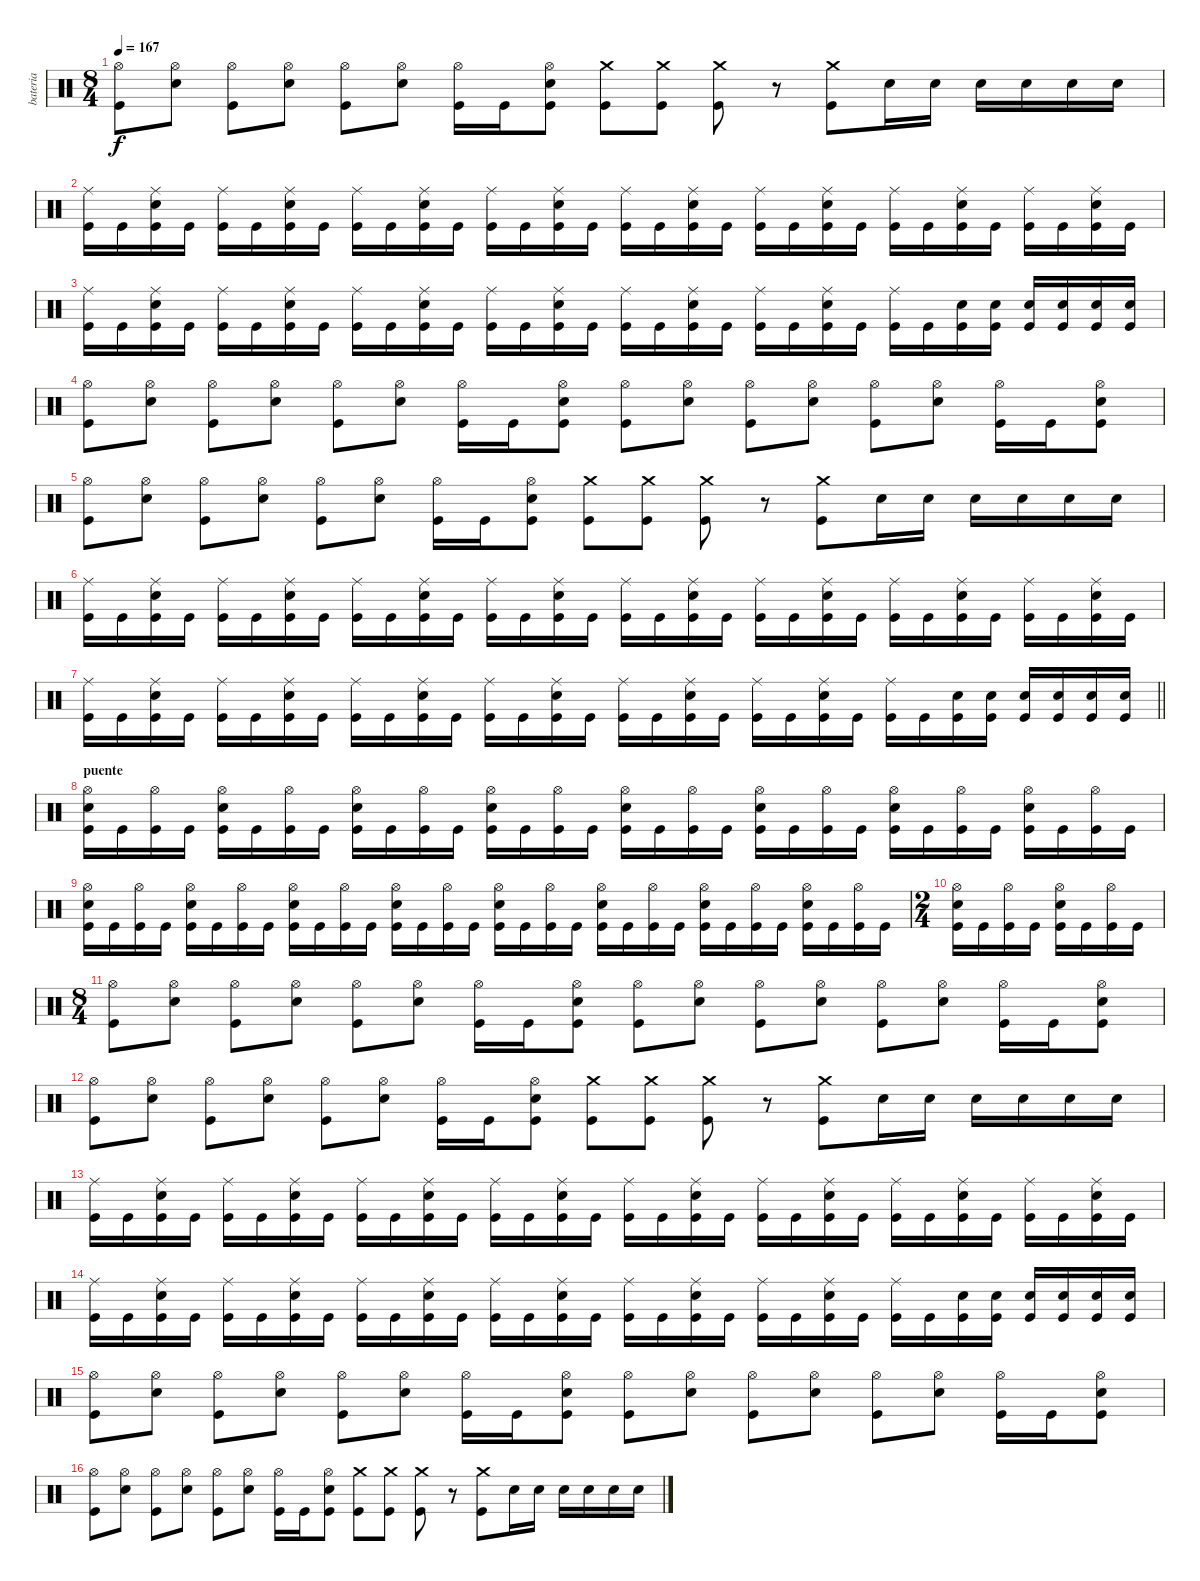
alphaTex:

\track ("bateria" "bateria") {instrument percussion}
\staff {score}
\articulation defaults
\ts (8 4)
\tempo 167
\clef neutral
\ks c
("Hi-Hat (open)" "Kick (hit)").8{dy f} ("Hi-Hat (open)" "Snare (hit) 2").8 ("Hi-Hat (open)" "Kick (hit)").8 ("Hi-Hat (open)" "Snare (hit) 2").8 ("Hi-Hat (open)" "Kick (hit)").8 ("Hi-Hat (open)" "Snare (hit) 2").8 ("Hi-Hat (open)" "Kick (hit)").16 "Kick (hit)".16 ("Hi-Hat (open)" "Snare (hit) 2" "Kick (hit)").8 ("Crash medium (hit)" "Kick (hit)").8 ("Crash medium (hit)" "Kick (hit)").8 ("Crash medium (hit)" "Kick (hit)").8 r.8 ("Crash medium (hit)" "Kick (hit)").8 "Snare (hit) 2".16 "Snare (hit) 2".16 "Snare (hit) 2".16 "Snare (hit) 2".16 "Snare (hit) 2".16 "Snare (hit) 2".16 |
("Ride (middle)" "Kick (hit)").16 "Kick (hit)".16 ("Ride (middle)" "Snare (hit) 2" "Kick (hit)").16 "Kick (hit)".16 ("Ride (middle)" "Kick (hit)").16 "Kick (hit)".16 ("Ride (middle)" "Snare (hit) 2" "Kick (hit)").16 "Kick (hit)".16 ("Ride (middle)" "Kick (hit)").16 "Kick (hit)".16 ("Ride (middle)" "Snare (hit) 2" "Kick (hit)").16 "Kick (hit)".16 ("Ride (middle)" "Kick (hit)").16 "Kick (hit)".16 ("Ride (middle)" "Snare (hit) 2" "Kick (hit)").16 "Kick (hit)".16 ("Ride (middle)" "Kick (hit)").16 "Kick (hit)".16 ("Ride (middle)" "Snare (hit) 2" "Kick (hit)").16 "Kick (hit)".16 ("Ride (middle)" "Kick (hit)").16 "Kick (hit)".16 ("Ride (middle)" "Snare (hit) 2" "Kick (hit)").16 "Kick (hit)".16 ("Ride (middle)" "Kick (hit)").16 "Kick (hit)".16 ("Ride (middle)" "Snare (hit) 2" "Kick (hit)").16 "Kick (hit)".16 ("Ride (middle)" "Kick (hit)").16 "Kick (hit)".16 ("Ride (middle)" "Snare (hit) 2" "Kick (hit)").16 "Kick (hit)".16 |
("Ride (middle)" "Kick (hit)").16 "Kick (hit)".16 ("Ride (middle)" "Snare (hit) 2" "Kick (hit)").16 "Kick (hit)".16 ("Ride (middle)" "Kick (hit)").16 "Kick (hit)".16 ("Ride (middle)" "Snare (hit) 2" "Kick (hit)").16 "Kick (hit)".16 ("Ride (middle)" "Kick (hit)").16 "Kick (hit)".16 ("Ride (middle)" "Snare (hit) 2" "Kick (hit)").16 "Kick (hit)".16 ("Ride (middle)" "Kick (hit)").16 "Kick (hit)".16 ("Ride (middle)" "Snare (hit) 2" "Kick (hit)").16 "Kick (hit)".16 ("Ride (middle)" "Kick (hit)").16 "Kick (hit)".16 ("Ride (middle)" "Snare (hit) 2" "Kick (hit)").16 "Kick (hit)".16 ("Ride (middle)" "Kick (hit)").16 "Kick (hit)".16 ("Ride (middle)" "Snare (hit) 2" "Kick (hit)").16 "Kick (hit)".16 ("Ride (middle)" "Kick (hit)").16 "Kick (hit)".16 ("Snare (hit) 2" "Kick (hit)").16 ("Snare (hit) 2" "Kick (hit)").16 ("Snare (hit) 2" "Kick (hit)").16 ("Snare (hit) 2" "Kick (hit)").16 ("Snare (hit) 2" "Kick (hit)").16 ("Snare (hit) 2" "Kick (hit)").16 |
("Hi-Hat (open)" "Kick (hit)").8 ("Hi-Hat (open)" "Snare (hit) 2").8 ("Hi-Hat (open)" "Kick (hit)").8 ("Hi-Hat (open)" "Snare (hit) 2").8 ("Hi-Hat (open)" "Kick (hit)").8 ("Hi-Hat (open)" "Snare (hit) 2").8 ("Hi-Hat (open)" "Kick (hit)").16 "Kick (hit)".16 ("Hi-Hat (open)" "Snare (hit) 2" "Kick (hit)").8 ("Hi-Hat (open)" "Kick (hit)").8 ("Hi-Hat (open)" "Snare (hit) 2").8 ("Hi-Hat (open)" "Kick (hit)").8 ("Hi-Hat (open)" "Snare (hit) 2").8 ("Hi-Hat (open)" "Kick (hit)").8 ("Hi-Hat (open)" "Snare (hit) 2").8 ("Hi-Hat (open)" "Kick (hit)").16 "Kick (hit)".16 ("Hi-Hat (open)" "Snare (hit) 2" "Kick (hit)").8 |
("Hi-Hat (open)" "Kick (hit)").8 ("Hi-Hat (open)" "Snare (hit) 2").8 ("Hi-Hat (open)" "Kick (hit)").8 ("Hi-Hat (open)" "Snare (hit) 2").8 ("Hi-Hat (open)" "Kick (hit)").8 ("Hi-Hat (open)" "Snare (hit) 2").8 ("Hi-Hat (open)" "Kick (hit)").16 "Kick (hit)".16 ("Hi-Hat (open)" "Snare (hit) 2" "Kick (hit)").8 ("Crash medium (hit)" "Kick (hit)").8 ("Crash medium (hit)" "Kick (hit)").8 ("Crash medium (hit)" "Kick (hit)").8 r.8 ("Crash medium (hit)" "Kick (hit)").8 "Snare (hit) 2".16 "Snare (hit) 2".16 "Snare (hit) 2".16 "Snare (hit) 2".16 "Snare (hit) 2".16 "Snare (hit) 2".16 |
("Ride (middle)" "Kick (hit)").16 "Kick (hit)".16 ("Ride (middle)" "Snare (hit) 2" "Kick (hit)").16 "Kick (hit)".16 ("Ride (middle)" "Kick (hit)").16 "Kick (hit)".16 ("Ride (middle)" "Snare (hit) 2" "Kick (hit)").16 "Kick (hit)".16 ("Ride (middle)" "Kick (hit)").16 "Kick (hit)".16 ("Ride (middle)" "Snare (hit) 2" "Kick (hit)").16 "Kick (hit)".16 ("Ride (middle)" "Kick (hit)").16 "Kick (hit)".16 ("Ride (middle)" "Snare (hit) 2" "Kick (hit)").16 "Kick (hit)".16 ("Ride (middle)" "Kick (hit)").16 "Kick (hit)".16 ("Ride (middle)" "Snare (hit) 2" "Kick (hit)").16 "Kick (hit)".16 ("Ride (middle)" "Kick (hit)").16 "Kick (hit)".16 ("Ride (middle)" "Snare (hit) 2" "Kick (hit)").16 "Kick (hit)".16 ("Ride (middle)" "Kick (hit)").16 "Kick (hit)".16 ("Ride (middle)" "Snare (hit) 2" "Kick (hit)").16 "Kick (hit)".16 ("Ride (middle)" "Kick (hit)").16 "Kick (hit)".16 ("Ride (middle)" "Snare (hit) 2" "Kick (hit)").16 "Kick (hit)".16 |
\barLineRight lightlight
("Ride (middle)" "Kick (hit)").16 "Kick (hit)".16 ("Ride (middle)" "Snare (hit) 2" "Kick (hit)").16 "Kick (hit)".16 ("Ride (middle)" "Kick (hit)").16 "Kick (hit)".16 ("Ride (middle)" "Snare (hit) 2" "Kick (hit)").16 "Kick (hit)".16 ("Ride (middle)" "Kick (hit)").16 "Kick (hit)".16 ("Ride (middle)" "Snare (hit) 2" "Kick (hit)").16 "Kick (hit)".16 ("Ride (middle)" "Kick (hit)").16 "Kick (hit)".16 ("Ride (middle)" "Snare (hit) 2" "Kick (hit)").16 "Kick (hit)".16 ("Ride (middle)" "Kick (hit)").16 "Kick (hit)".16 ("Ride (middle)" "Snare (hit) 2" "Kick (hit)").16 "Kick (hit)".16 ("Ride (middle)" "Kick (hit)").16 "Kick (hit)".16 ("Ride (middle)" "Snare (hit) 2" "Kick (hit)").16 "Kick (hit)".16 ("Ride (middle)" "Kick (hit)").16 "Kick (hit)".16 ("Snare (hit) 2" "Kick (hit)").16 ("Snare (hit) 2" "Kick (hit)").16 ("Snare (hit) 2" "Kick (hit)").16 ("Snare (hit) 2" "Kick (hit)").16 ("Snare (hit) 2" "Kick (hit)").16 ("Snare (hit) 2" "Kick (hit)").16 |
\section ("" "puente")
("Hi-Hat (open)" "Snare (hit) 2" "Kick (hit)").16 "Kick (hit)".16 ("Hi-Hat (open)" "Kick (hit)").16 "Kick (hit)".16 ("Hi-Hat (open)" "Snare (hit) 2" "Kick (hit)").16 "Kick (hit)".16 ("Hi-Hat (open)" "Kick (hit)").16 "Kick (hit)".16 ("Hi-Hat (open)" "Snare (hit) 2" "Kick (hit)").16 "Kick (hit)".16 ("Hi-Hat (open)" "Kick (hit)").16 "Kick (hit)".16 ("Hi-Hat (open)" "Snare (hit) 2" "Kick (hit)").16 "Kick (hit)".16 ("Hi-Hat (open)" "Kick (hit)").16 "Kick (hit)".16 ("Hi-Hat (open)" "Snare (hit) 2" "Kick (hit)").16 "Kick (hit)".16 ("Hi-Hat (open)" "Kick (hit)").16 "Kick (hit)".16 ("Hi-Hat (open)" "Snare (hit) 2" "Kick (hit)").16 "Kick (hit)".16 ("Hi-Hat (open)" "Kick (hit)").16 "Kick (hit)".16 ("Hi-Hat (open)" "Snare (hit) 2" "Kick (hit)").16 "Kick (hit)".16 ("Hi-Hat (open)" "Kick (hit)").16 "Kick (hit)".16 ("Hi-Hat (open)" "Snare (hit) 2" "Kick (hit)").16 "Kick (hit)".16 ("Hi-Hat (open)" "Kick (hit)").16 "Kick (hit)".16 |
("Hi-Hat (open)" "Snare (hit) 2" "Kick (hit)").16 "Kick (hit)".16 ("Hi-Hat (open)" "Kick (hit)").16 "Kick (hit)".16 ("Hi-Hat (open)" "Snare (hit) 2" "Kick (hit)").16 "Kick (hit)".16 ("Hi-Hat (open)" "Kick (hit)").16 "Kick (hit)".16 ("Hi-Hat (open)" "Snare (hit) 2" "Kick (hit)").16 "Kick (hit)".16 ("Hi-Hat (open)" "Kick (hit)").16 "Kick (hit)".16 ("Hi-Hat (open)" "Snare (hit) 2" "Kick (hit)").16 "Kick (hit)".16 ("Hi-Hat (open)" "Kick (hit)").16 "Kick (hit)".16 ("Hi-Hat (open)" "Snare (hit) 2" "Kick (hit)").16 "Kick (hit)".16 ("Hi-Hat (open)" "Kick (hit)").16 "Kick (hit)".16 ("Hi-Hat (open)" "Snare (hit) 2" "Kick (hit)").16 "Kick (hit)".16 ("Hi-Hat (open)" "Kick (hit)").16 "Kick (hit)".16 ("Hi-Hat (open)" "Snare (hit) 2" "Kick (hit)").16 "Kick (hit)".16 ("Hi-Hat (open)" "Kick (hit)").16 "Kick (hit)".16 ("Hi-Hat (open)" "Snare (hit) 2" "Kick (hit)").16 "Kick (hit)".16 ("Hi-Hat (open)" "Kick (hit)").16 "Kick (hit)".16 |
\ts (2 4)
("Hi-Hat (open)" "Snare (hit) 2" "Kick (hit)").16 "Kick (hit)".16 ("Hi-Hat (open)" "Kick (hit)").16 "Kick (hit)".16 ("Hi-Hat (open)" "Snare (hit) 2" "Kick (hit)").16 "Kick (hit)".16 ("Hi-Hat (open)" "Kick (hit)").16 "Kick (hit)".16 |
\ts (8 4)
("Hi-Hat (open)" "Kick (hit)").8 ("Hi-Hat (open)" "Snare (hit) 2").8 ("Hi-Hat (open)" "Kick (hit)").8 ("Hi-Hat (open)" "Snare (hit) 2").8 ("Hi-Hat (open)" "Kick (hit)").8 ("Hi-Hat (open)" "Snare (hit) 2").8 ("Hi-Hat (open)" "Kick (hit)").16 "Kick (hit)".16 ("Hi-Hat (open)" "Snare (hit) 2" "Kick (hit)").8 ("Hi-Hat (open)" "Kick (hit)").8 ("Hi-Hat (open)" "Snare (hit) 2").8 ("Hi-Hat (open)" "Kick (hit)").8 ("Hi-Hat (open)" "Snare (hit) 2").8 ("Hi-Hat (open)" "Kick (hit)").8 ("Hi-Hat (open)" "Snare (hit) 2").8 ("Hi-Hat (open)" "Kick (hit)").16 "Kick (hit)".16 ("Hi-Hat (open)" "Snare (hit) 2" "Kick (hit)").8 |
("Hi-Hat (open)" "Kick (hit)").8 ("Hi-Hat (open)" "Snare (hit) 2").8 ("Hi-Hat (open)" "Kick (hit)").8 ("Hi-Hat (open)" "Snare (hit) 2").8 ("Hi-Hat (open)" "Kick (hit)").8 ("Hi-Hat (open)" "Snare (hit) 2").8 ("Hi-Hat (open)" "Kick (hit)").16 "Kick (hit)".16 ("Hi-Hat (open)" "Snare (hit) 2" "Kick (hit)").8 ("Crash medium (hit)" "Kick (hit)").8 ("Crash medium (hit)" "Kick (hit)").8 ("Crash medium (hit)" "Kick (hit)").8 r.8 ("Crash medium (hit)" "Kick (hit)").8 "Snare (hit) 2".16 "Snare (hit) 2".16 "Snare (hit) 2".16 "Snare (hit) 2".16 "Snare (hit) 2".16 "Snare (hit) 2".16 |
("Ride (middle)" "Kick (hit)").16 "Kick (hit)".16 ("Ride (middle)" "Snare (hit) 2" "Kick (hit)").16 "Kick (hit)".16 ("Ride (middle)" "Kick (hit)").16 "Kick (hit)".16 ("Ride (middle)" "Snare (hit) 2" "Kick (hit)").16 "Kick (hit)".16 ("Ride (middle)" "Kick (hit)").16 "Kick (hit)".16 ("Ride (middle)" "Snare (hit) 2" "Kick (hit)").16 "Kick (hit)".16 ("Ride (middle)" "Kick (hit)").16 "Kick (hit)".16 ("Ride (middle)" "Snare (hit) 2" "Kick (hit)").16 "Kick (hit)".16 ("Ride (middle)" "Kick (hit)").16 "Kick (hit)".16 ("Ride (middle)" "Snare (hit) 2" "Kick (hit)").16 "Kick (hit)".16 ("Ride (middle)" "Kick (hit)").16 "Kick (hit)".16 ("Ride (middle)" "Snare (hit) 2" "Kick (hit)").16 "Kick (hit)".16 ("Ride (middle)" "Kick (hit)").16 "Kick (hit)".16 ("Ride (middle)" "Snare (hit) 2" "Kick (hit)").16 "Kick (hit)".16 ("Ride (middle)" "Kick (hit)").16 "Kick (hit)".16 ("Ride (middle)" "Snare (hit) 2" "Kick (hit)").16 "Kick (hit)".16 |
("Ride (middle)" "Kick (hit)").16 "Kick (hit)".16 ("Ride (middle)" "Snare (hit) 2" "Kick (hit)").16 "Kick (hit)".16 ("Ride (middle)" "Kick (hit)").16 "Kick (hit)".16 ("Ride (middle)" "Snare (hit) 2" "Kick (hit)").16 "Kick (hit)".16 ("Ride (middle)" "Kick (hit)").16 "Kick (hit)".16 ("Ride (middle)" "Snare (hit) 2" "Kick (hit)").16 "Kick (hit)".16 ("Ride (middle)" "Kick (hit)").16 "Kick (hit)".16 ("Ride (middle)" "Snare (hit) 2" "Kick (hit)").16 "Kick (hit)".16 ("Ride (middle)" "Kick (hit)").16 "Kick (hit)".16 ("Ride (middle)" "Snare (hit) 2" "Kick (hit)").16 "Kick (hit)".16 ("Ride (middle)" "Kick (hit)").16 "Kick (hit)".16 ("Ride (middle)" "Snare (hit) 2" "Kick (hit)").16 "Kick (hit)".16 ("Ride (middle)" "Kick (hit)").16 "Kick (hit)".16 ("Snare (hit) 2" "Kick (hit)").16 ("Snare (hit) 2" "Kick (hit)").16 ("Snare (hit) 2" "Kick (hit)").16 ("Snare (hit) 2" "Kick (hit)").16 ("Snare (hit) 2" "Kick (hit)").16 ("Snare (hit) 2" "Kick (hit)").16 |
("Hi-Hat (open)" "Kick (hit)").8 ("Hi-Hat (open)" "Snare (hit) 2").8 ("Hi-Hat (open)" "Kick (hit)").8 ("Hi-Hat (open)" "Snare (hit) 2").8 ("Hi-Hat (open)" "Kick (hit)").8 ("Hi-Hat (open)" "Snare (hit) 2").8 ("Hi-Hat (open)" "Kick (hit)").16 "Kick (hit)".16 ("Hi-Hat (open)" "Snare (hit) 2" "Kick (hit)").8 ("Hi-Hat (open)" "Kick (hit)").8 ("Hi-Hat (open)" "Snare (hit) 2").8 ("Hi-Hat (open)" "Kick (hit)").8 ("Hi-Hat (open)" "Snare (hit) 2").8 ("Hi-Hat (open)" "Kick (hit)").8 ("Hi-Hat (open)" "Snare (hit) 2").8 ("Hi-Hat (open)" "Kick (hit)").16 "Kick (hit)".16 ("Hi-Hat (open)" "Snare (hit) 2" "Kick (hit)").8 |
("Hi-Hat (open)" "Kick (hit)").8 ("Hi-Hat (open)" "Snare (hit) 2").8 ("Hi-Hat (open)" "Kick (hit)").8 ("Hi-Hat (open)" "Snare (hit) 2").8 ("Hi-Hat (open)" "Kick (hit)").8 ("Hi-Hat (open)" "Snare (hit) 2").8 ("Hi-Hat (open)" "Kick (hit)").16 "Kick (hit)".16 ("Hi-Hat (open)" "Snare (hit) 2" "Kick (hit)").8 ("Crash medium (hit)" "Kick (hit)").8 ("Crash medium (hit)" "Kick (hit)").8 ("Crash medium (hit)" "Kick (hit)").8 r.8 ("Crash medium (hit)" "Kick (hit)").8 "Snare (hit) 2".16 "Snare (hit) 2".16 "Snare (hit) 2".16 "Snare (hit) 2".16 "Snare (hit) 2".16 "Snare (hit) 2".16
